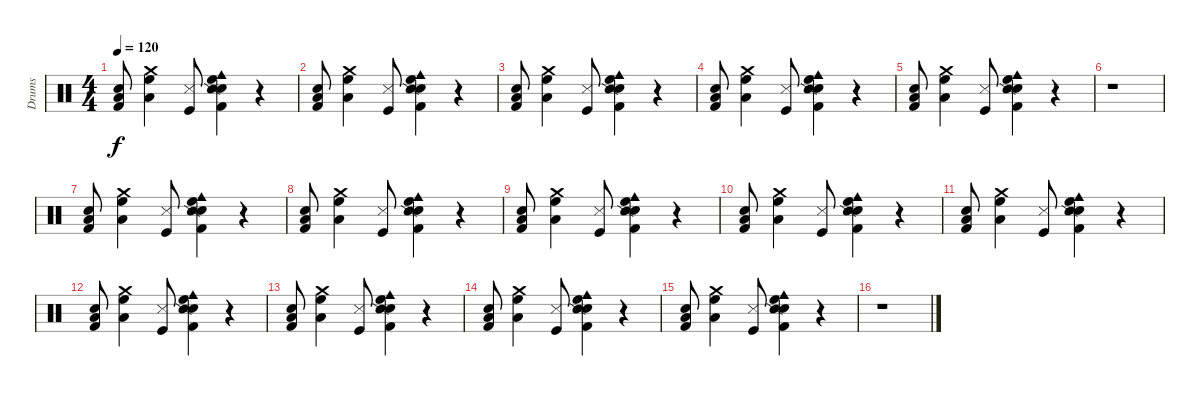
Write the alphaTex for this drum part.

\track ("Drums" "Drums") {instrument percussion}
\staff {score}
\articulation defaults
\ts (4 4)
\tempo 120
\clef neutral
\ks c
("Kick (hit) 2" "Low Floor Tom (hit)" "Electric Snare (hit)").8{dy f} ("Crash medium (hit)" "High Floor Tom (hit)" "Low Tom (hit)").4 ("Kick (hit)" "Snare (side stick) 3").8 ("Electric Snare (hit)" "High Floor Tom (hit)" "Snare (side stick) 2" "Cowbell medium (hit)" "Kick (hit) 2").4 r.4 |
("Kick (hit) 2" "Low Floor Tom (hit)" "Electric Snare (hit)").8 ("Crash medium (hit)" "High Floor Tom (hit)" "Low Tom (hit)").4 ("Kick (hit)" "Snare (side stick) 3").8 ("Electric Snare (hit)" "High Floor Tom (hit)" "Snare (side stick) 2" "Cowbell medium (hit)" "Kick (hit) 2").4 r.4 |
("Kick (hit) 2" "Low Floor Tom (hit)" "Electric Snare (hit)").8 ("Crash medium (hit)" "High Floor Tom (hit)" "Low Tom (hit)").4 ("Kick (hit)" "Snare (side stick) 3").8 ("Electric Snare (hit)" "High Floor Tom (hit)" "Snare (side stick) 2" "Cowbell medium (hit)" "Kick (hit) 2").4 r.4 |
("Kick (hit) 2" "Low Floor Tom (hit)" "Electric Snare (hit)").8 ("Crash medium (hit)" "High Floor Tom (hit)" "Low Tom (hit)").4 ("Kick (hit)" "Snare (side stick) 3").8 ("Electric Snare (hit)" "High Floor Tom (hit)" "Snare (side stick) 2" "Cowbell medium (hit)" "Kick (hit) 2").4 r.4 |
("Kick (hit) 2" "Low Floor Tom (hit)" "Electric Snare (hit)").8 ("Crash medium (hit)" "High Floor Tom (hit)" "Low Tom (hit)").4 ("Kick (hit)" "Snare (side stick) 3").8 ("Electric Snare (hit)" "High Floor Tom (hit)" "Snare (side stick) 2" "Cowbell medium (hit)" "Kick (hit) 2").4 r.4 |
r.1 |
("Kick (hit) 2" "Low Floor Tom (hit)" "Electric Snare (hit)").8 ("Crash medium (hit)" "High Floor Tom (hit)" "Low Tom (hit)").4 ("Kick (hit)" "Snare (side stick) 3").8 ("Electric Snare (hit)" "High Floor Tom (hit)" "Snare (side stick) 2" "Cowbell medium (hit)" "Kick (hit) 2").4 r.4 |
("Kick (hit) 2" "Low Floor Tom (hit)" "Electric Snare (hit)").8 ("Crash medium (hit)" "High Floor Tom (hit)" "Low Tom (hit)").4 ("Kick (hit)" "Snare (side stick) 3").8 ("Electric Snare (hit)" "High Floor Tom (hit)" "Snare (side stick) 2" "Cowbell medium (hit)" "Kick (hit) 2").4 r.4 |
("Kick (hit) 2" "Low Floor Tom (hit)" "Electric Snare (hit)").8 ("Crash medium (hit)" "High Floor Tom (hit)" "Low Tom (hit)").4 ("Kick (hit)" "Snare (side stick) 3").8 ("Electric Snare (hit)" "High Floor Tom (hit)" "Snare (side stick) 2" "Cowbell medium (hit)" "Kick (hit) 2").4 r.4 |
("Kick (hit) 2" "Low Floor Tom (hit)" "Electric Snare (hit)").8 ("Crash medium (hit)" "High Floor Tom (hit)" "Low Tom (hit)").4 ("Kick (hit)" "Snare (side stick) 3").8 ("Electric Snare (hit)" "High Floor Tom (hit)" "Snare (side stick) 2" "Cowbell medium (hit)" "Kick (hit) 2").4 r.4 |
("Kick (hit) 2" "Low Floor Tom (hit)" "Electric Snare (hit)").8 ("Crash medium (hit)" "High Floor Tom (hit)" "Low Tom (hit)").4 ("Kick (hit)" "Snare (side stick) 3").8 ("Electric Snare (hit)" "High Floor Tom (hit)" "Snare (side stick) 2" "Cowbell medium (hit)" "Kick (hit) 2").4 r.4 |
("Kick (hit) 2" "Low Floor Tom (hit)" "Electric Snare (hit)").8 ("Crash medium (hit)" "High Floor Tom (hit)" "Low Tom (hit)").4 ("Kick (hit)" "Snare (side stick) 3").8 ("Electric Snare (hit)" "High Floor Tom (hit)" "Snare (side stick) 2" "Cowbell medium (hit)" "Kick (hit) 2").4 r.4 |
("Kick (hit) 2" "Low Floor Tom (hit)" "Electric Snare (hit)").8 ("Crash medium (hit)" "High Floor Tom (hit)" "Low Tom (hit)").4 ("Kick (hit)" "Snare (side stick) 3").8 ("Electric Snare (hit)" "High Floor Tom (hit)" "Snare (side stick) 2" "Cowbell medium (hit)" "Kick (hit) 2").4 r.4 |
("Kick (hit) 2" "Low Floor Tom (hit)" "Electric Snare (hit)").8 ("Crash medium (hit)" "High Floor Tom (hit)" "Low Tom (hit)").4 ("Kick (hit)" "Snare (side stick) 3").8 ("Electric Snare (hit)" "High Floor Tom (hit)" "Snare (side stick) 2" "Cowbell medium (hit)" "Kick (hit) 2").4 r.4 |
("Kick (hit) 2" "Low Floor Tom (hit)" "Electric Snare (hit)").8 ("Crash medium (hit)" "High Floor Tom (hit)" "Low Tom (hit)").4 ("Kick (hit)" "Snare (side stick) 3").8 ("Electric Snare (hit)" "High Floor Tom (hit)" "Snare (side stick) 2" "Cowbell medium (hit)" "Kick (hit) 2").4 r.4 |
r.1
